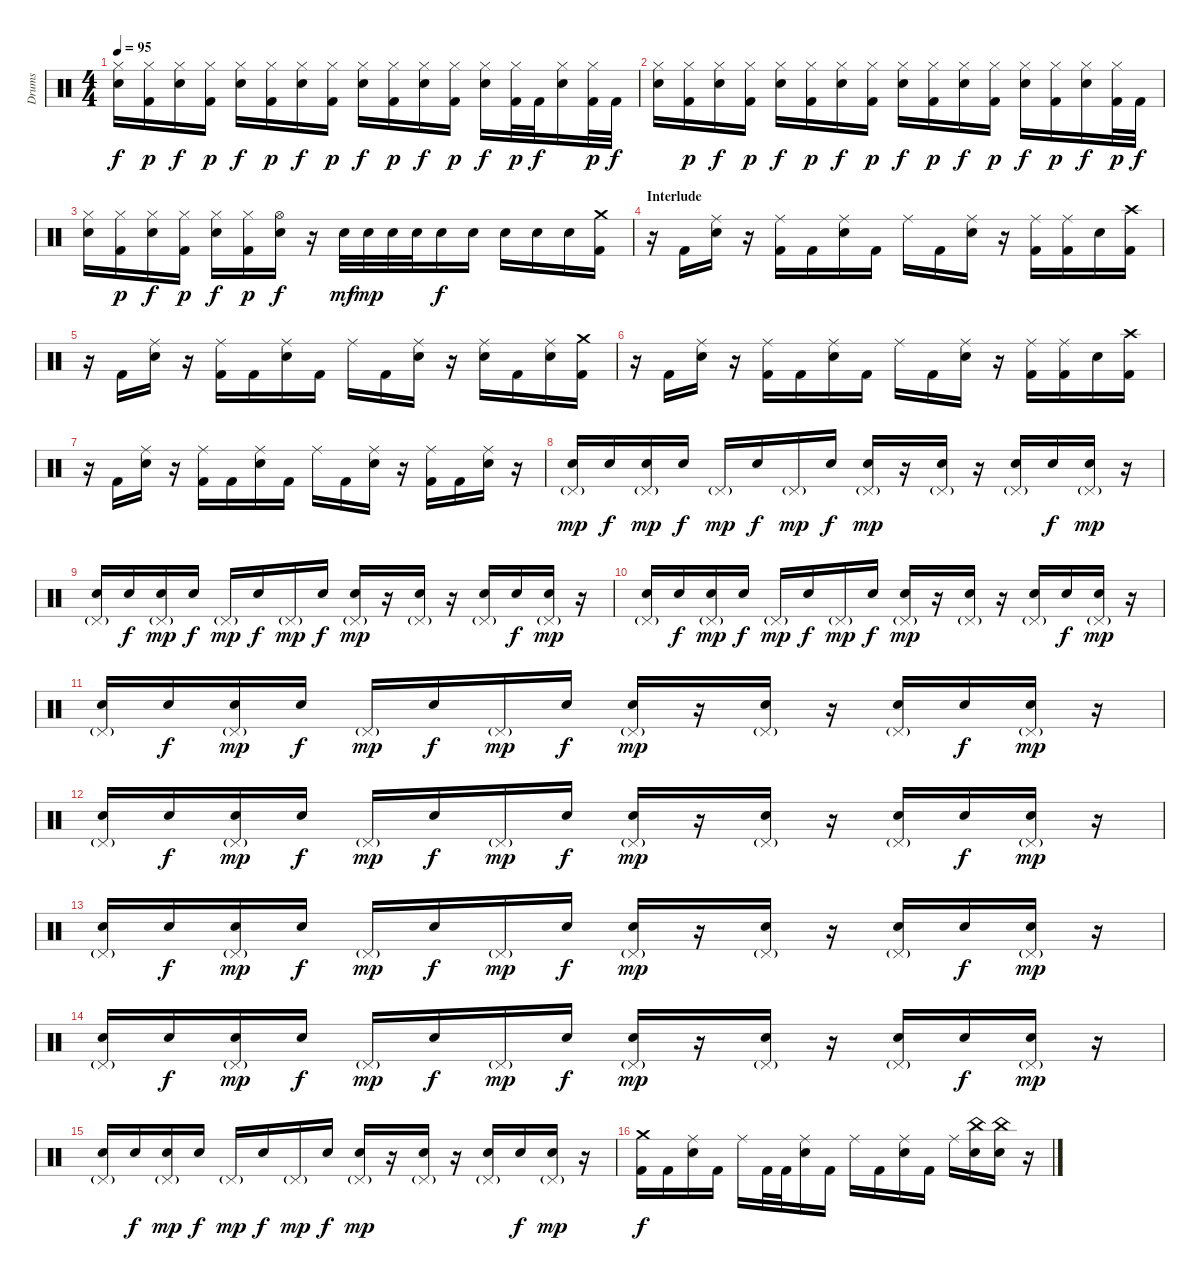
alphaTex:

\track ("Drums" "Drums") {instrument percussion}
\staff {score}
\articulation defaults
\ts (4 4)
\tempo 95
\clef neutral
\ks c
("Hi-Hat (closed)" "Snare (hit) 2").16{dy f} ("Hi-Hat (closed)" "Kick (hit) 2").16{dy p} ("Hi-Hat (closed)" "Snare (hit) 2").16{dy f} ("Hi-Hat (closed)" "Kick (hit) 2").16{dy p} ("Hi-Hat (closed)" "Snare (hit) 2").16{dy f} ("Hi-Hat (closed)" "Kick (hit) 2").16{dy p} ("Hi-Hat (closed)" "Snare (hit) 2").16{dy f} ("Hi-Hat (closed)" "Kick (hit) 2").16{dy p} ("Hi-Hat (closed)" "Snare (hit) 2").16{dy f} ("Hi-Hat (closed)" "Kick (hit) 2").16{dy p} ("Hi-Hat (closed)" "Snare (hit) 2").16{dy f} ("Hi-Hat (closed)" "Kick (hit) 2").16{dy p} ("Hi-Hat (closed)" "Snare (hit) 2").16{dy f} ("Hi-Hat (closed)" "Kick (hit) 2").32{dy p} "Kick (hit) 2".32{dy f} ("Hi-Hat (closed)" "Snare (hit) 2").16 ("Hi-Hat (closed)" "Kick (hit) 2").32{dy p} "Kick (hit) 2".32{dy f} |
("Hi-Hat (closed)" "Snare (hit) 2").16 ("Hi-Hat (closed)" "Kick (hit) 2").16{dy p} ("Hi-Hat (closed)" "Snare (hit) 2").16{dy f} ("Hi-Hat (closed)" "Kick (hit) 2").16{dy p} ("Hi-Hat (closed)" "Snare (hit) 2").16{dy f} ("Hi-Hat (closed)" "Kick (hit) 2").16{dy p} ("Hi-Hat (closed)" "Snare (hit) 2").16{dy f} ("Hi-Hat (closed)" "Kick (hit) 2").16{dy p} ("Hi-Hat (closed)" "Snare (hit) 2").16{dy f} ("Hi-Hat (closed)" "Kick (hit) 2").16{dy p} ("Hi-Hat (closed)" "Snare (hit) 2").16{dy f} ("Hi-Hat (closed)" "Kick (hit) 2").16{dy p} ("Hi-Hat (closed)" "Snare (hit) 2").16{dy f} ("Hi-Hat (closed)" "Kick (hit) 2").16{dy p} ("Hi-Hat (closed)" "Snare (hit) 2").16{dy f} ("Hi-Hat (closed)" "Kick (hit) 2").32{dy p} "Kick (hit) 2".32{dy f} |
("Hi-Hat (closed)" "Snare (hit) 2").16 ("Hi-Hat (closed)" "Kick (hit) 2").16{dy p} ("Hi-Hat (closed)" "Snare (hit) 2").16{dy f} ("Hi-Hat (closed)" "Kick (hit) 2").16{dy p} ("Hi-Hat (closed)" "Snare (hit) 2").16{dy f} ("Hi-Hat (closed)" "Kick (hit) 2").16{dy p} ("Hi-Hat (open)" "Snare (hit) 2").16{dy f} r.16 "Snare (hit) 2".32{dy mf} "Snare (hit) 2".32{dy mp} "Snare (hit) 2".32 "Snare (hit) 2".32 "Snare (hit) 2".16{dy f} "Snare (hit) 2".16 "Snare (hit) 2".16 "Snare (hit) 2".16 "Snare (hit) 2".16 ("Crash medium (hit)" "Kick (hit) 2").16 |
\section ("" "Interlude")
r.16 "Kick (hit) 2".16 ("Ride (middle)" "Snare (hit) 2").16 r.16 ("Ride (middle)" "Kick (hit) 2").16 "Kick (hit) 2".16 ("Ride (middle)" "Snare (hit) 2").16 "Kick (hit) 2".16 "Ride (middle)".16 "Kick (hit) 2".16 ("Ride (middle)" "Snare (hit) 2").16 r.16 ("Ride (middle)" "Kick (hit) 2").16 ("Ride (middle)" "Kick (hit) 2").16 "Snare (hit) 2".16 ("Crash high (hit)" "Kick (hit) 2").16 |
r.16 "Kick (hit) 2".16 ("Ride (middle)" "Snare (hit) 2").16 r.16 ("Ride (middle)" "Kick (hit) 2").16 "Kick (hit) 2".16 ("Ride (middle)" "Snare (hit) 2").16 "Kick (hit) 2".16 "Ride (middle)".16 "Kick (hit) 2".16 ("Ride (middle)" "Snare (hit) 2").16 r.16 ("Ride (middle)" "Snare (hit) 2").16 "Kick (hit) 2".16 ("Ride (middle)" "Snare (hit) 2").16 ("Crash medium (hit)" "Kick (hit) 2").16 |
r.16 "Kick (hit) 2".16 ("Ride (middle)" "Snare (hit) 2").16 r.16 ("Ride (middle)" "Kick (hit) 2").16 "Kick (hit) 2".16 ("Ride (middle)" "Snare (hit) 2").16 "Kick (hit) 2".16 "Ride (middle)".16 "Kick (hit) 2".16 ("Ride (middle)" "Snare (hit) 2").16 r.16 ("Ride (middle)" "Kick (hit) 2").16 ("Ride (middle)" "Kick (hit) 2").16 "Snare (hit) 2".16 ("Crash high (hit)" "Kick (hit) 2").16 |
r.16 "Kick (hit) 2".16 ("Ride (middle)" "Snare (hit) 2").16 r.16 ("Ride (middle)" "Kick (hit) 2").16 "Kick (hit) 2".16 ("Ride (middle)" "Snare (hit) 2").16 "Kick (hit) 2".16 "Ride (middle)".16 "Kick (hit) 2".16 ("Ride (middle)" "Snare (hit) 2").16 r.16 ("Ride (middle)" "Kick (hit) 2").16 "Kick (hit) 2".16 ("Ride (middle)" "Snare (hit) 2").16 r.16 |
("Pedal Hi-Hat (hit)"{g} "Snare (hit) 2").16{dy mp} "Snare (hit) 2".16{dy f} ("Pedal Hi-Hat (hit)"{g} "Snare (hit) 2").16{dy mp} "Snare (hit) 2".16{dy f} "Pedal Hi-Hat (hit)"{g}.16{dy mp} "Snare (hit) 2".16{dy f} "Pedal Hi-Hat (hit)"{g}.16{dy mp} "Snare (hit) 2".16{dy f} ("Pedal Hi-Hat (hit)"{g} "Snare (hit) 2").16{dy mp} r.16 ("Pedal Hi-Hat (hit)"{g} "Snare (hit) 2").16 r.16 ("Pedal Hi-Hat (hit)"{g} "Snare (hit) 2").16 "Snare (hit) 2".16{dy f} ("Pedal Hi-Hat (hit)"{g} "Snare (hit) 2").16{dy mp} r.16 |
("Pedal Hi-Hat (hit)"{g} "Snare (hit) 2").16 "Snare (hit) 2".16{dy f} ("Pedal Hi-Hat (hit)"{g} "Snare (hit) 2").16{dy mp} "Snare (hit) 2".16{dy f} "Pedal Hi-Hat (hit)"{g}.16{dy mp} "Snare (hit) 2".16{dy f} "Pedal Hi-Hat (hit)"{g}.16{dy mp} "Snare (hit) 2".16{dy f} ("Pedal Hi-Hat (hit)"{g} "Snare (hit) 2").16{dy mp} r.16 ("Pedal Hi-Hat (hit)"{g} "Snare (hit) 2").16 r.16 ("Pedal Hi-Hat (hit)"{g} "Snare (hit) 2").16 "Snare (hit) 2".16{dy f} ("Pedal Hi-Hat (hit)"{g} "Snare (hit) 2").16{dy mp} r.16 |
("Pedal Hi-Hat (hit)"{g} "Snare (hit) 2").16 "Snare (hit) 2".16{dy f} ("Pedal Hi-Hat (hit)"{g} "Snare (hit) 2").16{dy mp} "Snare (hit) 2".16{dy f} "Pedal Hi-Hat (hit)"{g}.16{dy mp} "Snare (hit) 2".16{dy f} "Pedal Hi-Hat (hit)"{g}.16{dy mp} "Snare (hit) 2".16{dy f} ("Pedal Hi-Hat (hit)"{g} "Snare (hit) 2").16{dy mp} r.16 ("Pedal Hi-Hat (hit)"{g} "Snare (hit) 2").16 r.16 ("Pedal Hi-Hat (hit)"{g} "Snare (hit) 2").16 "Snare (hit) 2".16{dy f} ("Pedal Hi-Hat (hit)"{g} "Snare (hit) 2").16{dy mp} r.16 |
("Pedal Hi-Hat (hit)"{g} "Snare (hit) 2").16 "Snare (hit) 2".16{dy f} ("Pedal Hi-Hat (hit)"{g} "Snare (hit) 2").16{dy mp} "Snare (hit) 2".16{dy f} "Pedal Hi-Hat (hit)"{g}.16{dy mp} "Snare (hit) 2".16{dy f} "Pedal Hi-Hat (hit)"{g}.16{dy mp} "Snare (hit) 2".16{dy f} ("Pedal Hi-Hat (hit)"{g} "Snare (hit) 2").16{dy mp} r.16 ("Pedal Hi-Hat (hit)"{g} "Snare (hit) 2").16 r.16 ("Pedal Hi-Hat (hit)"{g} "Snare (hit) 2").16 "Snare (hit) 2".16{dy f} ("Pedal Hi-Hat (hit)"{g} "Snare (hit) 2").16{dy mp} r.16 |
("Pedal Hi-Hat (hit)"{g} "Snare (hit) 2").16 "Snare (hit) 2".16{dy f} ("Pedal Hi-Hat (hit)"{g} "Snare (hit) 2").16{dy mp} "Snare (hit) 2".16{dy f} "Pedal Hi-Hat (hit)"{g}.16{dy mp} "Snare (hit) 2".16{dy f} "Pedal Hi-Hat (hit)"{g}.16{dy mp} "Snare (hit) 2".16{dy f} ("Pedal Hi-Hat (hit)"{g} "Snare (hit) 2").16{dy mp} r.16 ("Pedal Hi-Hat (hit)"{g} "Snare (hit) 2").16 r.16 ("Pedal Hi-Hat (hit)"{g} "Snare (hit) 2").16 "Snare (hit) 2".16{dy f} ("Pedal Hi-Hat (hit)"{g} "Snare (hit) 2").16{dy mp} r.16 |
("Pedal Hi-Hat (hit)"{g} "Snare (hit) 2").16 "Snare (hit) 2".16{dy f} ("Pedal Hi-Hat (hit)"{g} "Snare (hit) 2").16{dy mp} "Snare (hit) 2".16{dy f} "Pedal Hi-Hat (hit)"{g}.16{dy mp} "Snare (hit) 2".16{dy f} "Pedal Hi-Hat (hit)"{g}.16{dy mp} "Snare (hit) 2".16{dy f} ("Pedal Hi-Hat (hit)"{g} "Snare (hit) 2").16{dy mp} r.16 ("Pedal Hi-Hat (hit)"{g} "Snare (hit) 2").16 r.16 ("Pedal Hi-Hat (hit)"{g} "Snare (hit) 2").16 "Snare (hit) 2".16{dy f} ("Pedal Hi-Hat (hit)"{g} "Snare (hit) 2").16{dy mp} r.16 |
("Pedal Hi-Hat (hit)"{g} "Snare (hit) 2").16 "Snare (hit) 2".16{dy f} ("Pedal Hi-Hat (hit)"{g} "Snare (hit) 2").16{dy mp} "Snare (hit) 2".16{dy f} "Pedal Hi-Hat (hit)"{g}.16{dy mp} "Snare (hit) 2".16{dy f} "Pedal Hi-Hat (hit)"{g}.16{dy mp} "Snare (hit) 2".16{dy f} ("Pedal Hi-Hat (hit)"{g} "Snare (hit) 2").16{dy mp} r.16 ("Pedal Hi-Hat (hit)"{g} "Snare (hit) 2").16 r.16 ("Pedal Hi-Hat (hit)"{g} "Snare (hit) 2").16 "Snare (hit) 2".16{dy f} ("Pedal Hi-Hat (hit)"{g} "Snare (hit) 2").16{dy mp} r.16 |
("Pedal Hi-Hat (hit)"{g} "Snare (hit) 2").16 "Snare (hit) 2".16{dy f} ("Pedal Hi-Hat (hit)"{g} "Snare (hit) 2").16{dy mp} "Snare (hit) 2".16{dy f} "Pedal Hi-Hat (hit)"{g}.16{dy mp} "Snare (hit) 2".16{dy f} "Pedal Hi-Hat (hit)"{g}.16{dy mp} "Snare (hit) 2".16{dy f} ("Pedal Hi-Hat (hit)"{g} "Snare (hit) 2").16{dy mp} r.16 ("Pedal Hi-Hat (hit)"{g} "Snare (hit) 2").16 r.16 ("Pedal Hi-Hat (hit)"{g} "Snare (hit) 2").16 "Snare (hit) 2".16{dy f} ("Pedal Hi-Hat (hit)"{g} "Snare (hit) 2").16{dy mp} r.16 |
\section ("" "")
("Crash medium (hit)" "Kick (hit) 2").16{dy f} "Kick (hit) 2".16 ("Ride (middle)" "Snare (hit) 2").16 "Kick (hit) 2".16 "Ride (middle)".16 "Kick (hit) 2".32 "Kick (hit) 2".32 ("Ride (middle)" "Snare (hit) 2").16 "Kick (hit) 2".16 "Ride (middle)".16 "Kick (hit) 2".16 ("Ride (middle)" "Snare (hit) 2").16 "Kick (hit) 2".16 "Ride (middle)".16 ("China (hit)" "Snare (hit) 2").16 ("China (hit)" "Snare (hit) 2").16 r.16
